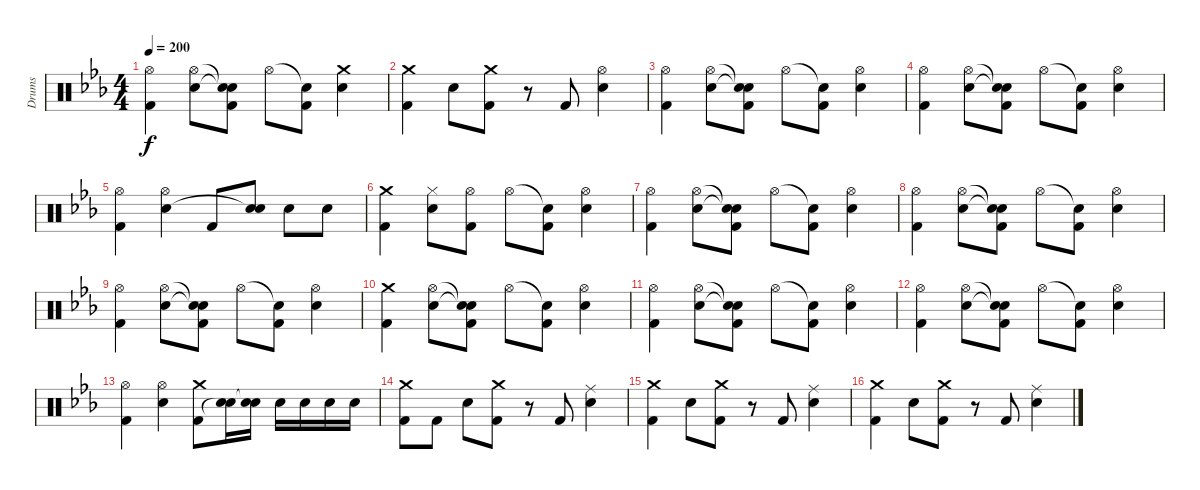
\track ("Drums" "Drums") {instrument percussion}
\staff {score}
\articulation defaults
\ts (4 4)
\tempo 200
\clef neutral
\ks cminor
("Hi-Hat (open)" "Kick (hit) 2").4{dy f} ("Hi-Hat (open)" "Electric Snare (hit)").8 ("Snare (hit)"{t} "Snare (hit)"{t} "Kick (hit) 2").8 "Hi-Hat (open)".8 ("Snare (hit)"{t} "Kick (hit) 2").8 ("Crash medium (hit)" "Electric Snare (hit)").4 |
("Crash medium (hit)" "Kick (hit) 2").4 "Electric Snare (hit)".8 ("Crash medium (hit)" "Kick (hit) 2").8 r.8 "Kick (hit) 2".8 ("Hi-Hat (open)" "Electric Snare (hit)").4 |
("Hi-Hat (open)" "Kick (hit) 2").4 ("Hi-Hat (open)" "Electric Snare (hit)").8 ("Snare (hit)"{t} "Snare (hit)"{t} "Kick (hit) 2").8 "Hi-Hat (open)".8 ("Snare (hit)"{t} "Kick (hit) 2").8 ("Hi-Hat (open)" "Electric Snare (hit)").4 |
("Hi-Hat (open)" "Kick (hit) 2").4 ("Hi-Hat (open)" "Electric Snare (hit)").8 ("Snare (hit)"{t} "Snare (hit)"{t} "Kick (hit) 2").8 "Hi-Hat (open)".8 ("Snare (hit)"{t} "Kick (hit) 2").8 ("Hi-Hat (open)" "Electric Snare (hit)").4 |
("Hi-Hat (open)" "Kick (hit) 2").4 ("Hi-Hat (open)" "Electric Snare (hit)").4 "Kick (hit) 2".8 ("Electric Snare (hit)" "Snare (hit)"{t}).8 "Electric Snare (hit)".8 "Electric Snare (hit)".8 |
("Crash medium (hit)" "Kick (hit) 2").4 ("Hi-Hat (closed)" "Electric Snare (hit)").8 ("Hi-Hat (open)" "Kick (hit) 2").8 "Hi-Hat (open)".8 ("Snare (hit)"{t} "Kick (hit) 2").8 ("Hi-Hat (open)" "Electric Snare (hit)").4 |
("Hi-Hat (open)" "Kick (hit) 2").4 ("Hi-Hat (open)" "Electric Snare (hit)").8 ("Snare (hit)"{t} "Snare (hit)"{t} "Kick (hit) 2").8 "Hi-Hat (open)".8 ("Snare (hit)"{t} "Kick (hit) 2").8 ("Hi-Hat (open)" "Electric Snare (hit)").4 |
("Hi-Hat (open)" "Kick (hit) 2").4 ("Hi-Hat (open)" "Electric Snare (hit)").8 ("Snare (hit)"{t} "Snare (hit)"{t} "Kick (hit) 2").8 "Hi-Hat (open)".8 ("Snare (hit)"{t} "Kick (hit) 2").8 ("Hi-Hat (open)" "Electric Snare (hit)").4 |
("Hi-Hat (open)" "Kick (hit) 2").4 ("Hi-Hat (open)" "Electric Snare (hit)").8 ("Snare (hit)"{t} "Snare (hit)"{t} "Kick (hit) 2").8 "Hi-Hat (open)".8 ("Snare (hit)"{t} "Kick (hit) 2").8 ("Hi-Hat (open)" "Electric Snare (hit)").4 |
("Crash medium (hit)" "Kick (hit) 2").4 ("Hi-Hat (open)" "Electric Snare (hit)").8 ("Snare (hit)"{t} "Snare (hit)"{t} "Kick (hit) 2").8 "Hi-Hat (open)".8 ("Snare (hit)"{t} "Kick (hit) 2").8 ("Hi-Hat (open)" "Electric Snare (hit)").4 |
("Hi-Hat (open)" "Kick (hit) 2").4 ("Hi-Hat (open)" "Electric Snare (hit)").8 ("Snare (hit)"{t} "Snare (hit)"{t} "Kick (hit) 2").8 "Hi-Hat (open)".8 ("Snare (hit)"{t} "Kick (hit) 2").8 ("Hi-Hat (open)" "Electric Snare (hit)").4 |
("Hi-Hat (open)" "Kick (hit) 2").4 ("Hi-Hat (open)" "Electric Snare (hit)").8 ("Snare (hit)"{t} "Snare (hit)"{t} "Kick (hit) 2").8 "Hi-Hat (open)".8 ("Snare (hit)"{t} "Kick (hit) 2").8 ("Hi-Hat (open)" "Electric Snare (hit)").4 |
("Hi-Hat (open)" "Kick (hit) 2").4 ("Hi-Hat (open)" "Electric Snare (hit)").4 ("Crash medium (hit)" "Kick (hit) 2").8 ("Electric Snare (hit)" "Snare (hit)"{t}).16 ("Electric Snare (hit)" "Snare (hit)"{t}).16 "Electric Snare (hit)".16 "Electric Snare (hit)".16 "Electric Snare (hit)".16 "Electric Snare (hit)".16 |
("Crash medium (hit)" "Kick (hit) 2").8 "Kick (hit) 2".8 "Electric Snare (hit)".8 ("Crash medium (hit)" "Kick (hit) 2").8 r.8 "Kick (hit) 2".8 ("Ride (middle)" "Electric Snare (hit)").4 |
("Crash medium (hit)" "Kick (hit) 2").4 "Electric Snare (hit)".8 ("Crash medium (hit)" "Kick (hit) 2").8 r.8 "Kick (hit) 2".8 ("Ride (middle)" "Electric Snare (hit)").4 |
("Crash medium (hit)" "Kick (hit) 2").4 "Electric Snare (hit)".8 ("Crash medium (hit)" "Kick (hit) 2").8 r.8 "Kick (hit) 2".8 ("Ride (middle)" "Electric Snare (hit)").4
